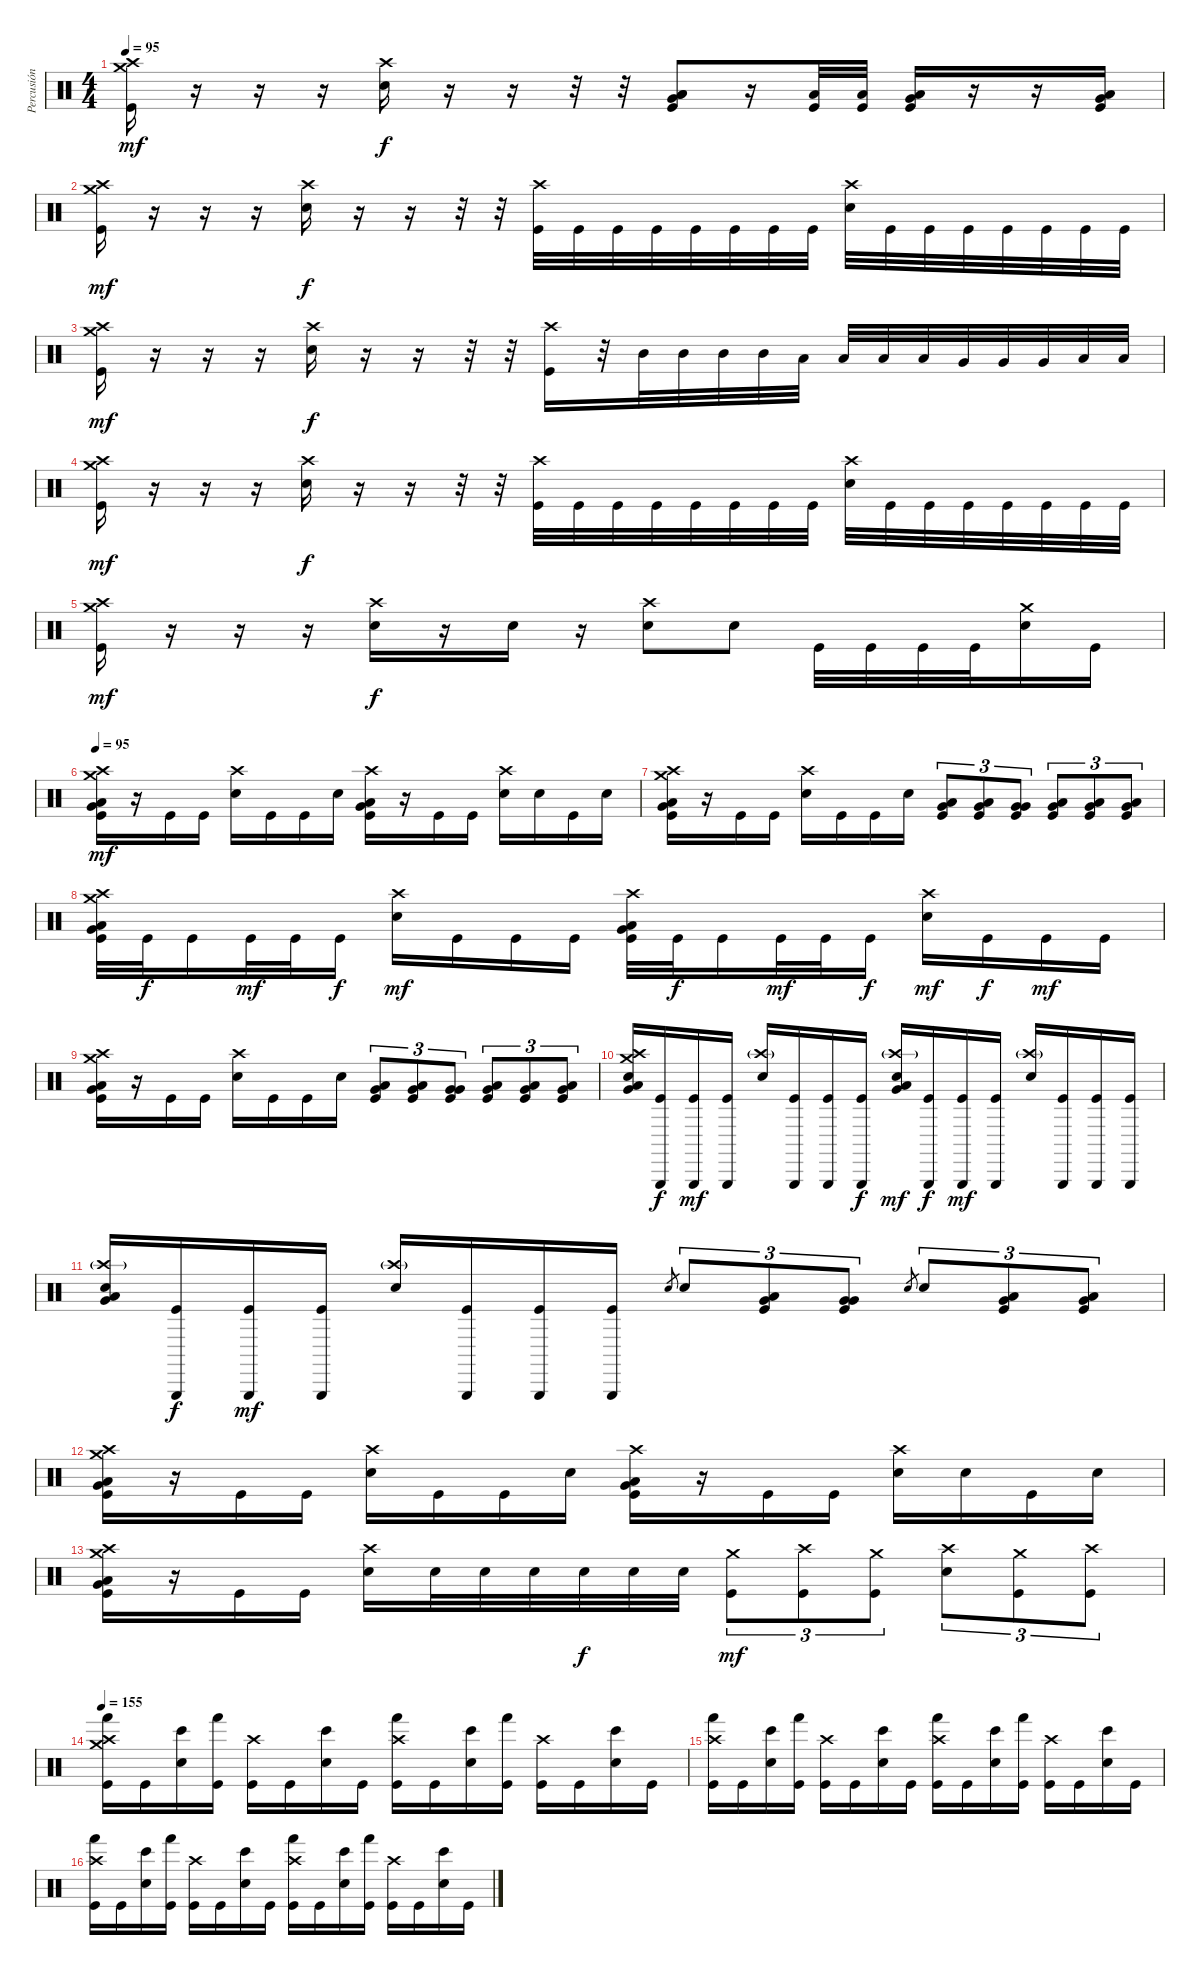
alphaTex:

\track ("Percusión" "Percusión") {instrument percussion}
\staff {score}
\articulation defaults
\ts (4 4)
\tempo 95
\clef neutral
\ks c
("Crash medium (hit)" "Crash high (hit)" "Kick (hit)").16{dy mf} r.16 r.16 r.16 ("Crash high (hit)" "Electric Snare (hit)").16{dy f} r.16 r.16 r.32 r.32 ("Low Floor Tom (hit)" "Very Low Tom (hit)" "Low Tom (hit)" "Kick (hit)").8 r.16 ("Low Tom (hit)" "Kick (hit)").32 ("Low Tom (hit)" "Kick (hit)").32 ("Very Low Tom (hit)" "Low Tom (hit)" "Kick (hit)").16 r.16 r.16 ("Very Low Tom (hit)" "Low Tom (hit)" "Kick (hit)").16 |
("Crash medium (hit)" "Crash high (hit)" "Kick (hit)").16{dy mf} r.16 r.16 r.16 ("Crash high (hit)" "Electric Snare (hit)").16{dy f} r.16 r.16 r.32 r.32 ("Crash high (hit)" "Kick (hit)").32 "Kick (hit)".32 "Kick (hit)".32 "Kick (hit)".32 "Kick (hit)".32 "Kick (hit)".32 "Kick (hit)".32 "Kick (hit)".32 ("Crash high (hit)" "Electric Snare (hit)").32 "Kick (hit)".32 "Kick (hit)".32 "Kick (hit)".32 "Kick (hit)".32 "Kick (hit)".32 "Kick (hit)".32 "Kick (hit)".32 |
("Crash medium (hit)" "Crash high (hit)" "Kick (hit)").16{dy mf} r.16 r.16 r.16 ("Crash high (hit)" "Electric Snare (hit)").16{dy f} r.16 r.16 r.32 r.32 ("Crash high (hit)" "Kick (hit)").16 r.32 "Mid Tom (hit)".32 "Mid Tom (hit)".32 "Mid Tom (hit)".32 "Mid Tom (hit)".32 "Low Tom (hit)".32 "Low Tom (hit)".32 "Low Tom (hit)".32 "Low Tom (hit)".32 "Very Low Tom (hit)".32 "Very Low Tom (hit)".32 "Very Low Tom (hit)".32 "Low Floor Tom (hit)".32 "Low Floor Tom (hit)".32 |
("Crash medium (hit)" "Crash high (hit)" "Kick (hit)").16{dy mf} r.16 r.16 r.16 ("Crash high (hit)" "Electric Snare (hit)").16{dy f} r.16 r.16 r.32 r.32 ("Crash high (hit)" "Kick (hit)").32 "Kick (hit)".32 "Kick (hit)".32 "Kick (hit)".32 "Kick (hit)".32 "Kick (hit)".32 "Kick (hit)".32 "Kick (hit)".32 ("Crash high (hit)" "Electric Snare (hit)").32 "Kick (hit)".32 "Kick (hit)".32 "Kick (hit)".32 "Kick (hit)".32 "Kick (hit)".32 "Kick (hit)".32 "Kick (hit)".32 |
("Crash medium (hit)" "Crash high (hit)" "Kick (hit)").16{dy mf} r.16 r.16 r.16 ("Crash high (hit)" "Electric Snare (hit)").16{dy f} r.16 "Electric Snare (hit)".16 r.16 ("Crash high (hit)" "Electric Snare (hit)").8 "Electric Snare (hit)".8 "Kick (hit)".32 "Kick (hit)".32 "Kick (hit)".32 "Kick (hit)".32 ("Crash medium (hit)" "Electric Snare (hit)").16 "Kick (hit)".16 |
\tempo 95
("Low Floor Tom (hit)" "Very Low Tom (hit)" "Crash medium (hit)" "Crash high (hit)" "Kick (hit)").16{dy mf} r.16 "Kick (hit)".16 "Kick (hit)".16 ("Crash high (hit)" "Electric Snare (hit)").16 "Kick (hit)".16 "Kick (hit)".16 "Electric Snare (hit)".16 ("Low Floor Tom (hit)" "Very Low Tom (hit)" "Crash high (hit)" "Kick (hit)").16 r.16 "Kick (hit)".16 "Kick (hit)".16 ("Crash high (hit)" "Electric Snare (hit)").16 "Electric Snare (hit)".16 "Kick (hit)".16 "Electric Snare (hit)".16 |
("Low Floor Tom (hit)" "Very Low Tom (hit)" "Crash medium (hit)" "Crash high (hit)" "Kick (hit)").16 r.16 "Kick (hit)".16 "Kick (hit)".16 ("Crash high (hit)" "Electric Snare (hit)").16 "Kick (hit)".16 "Kick (hit)".16 "Electric Snare (hit)".16 ("Very Low Tom (hit)" "Low Tom (hit)" "Kick (hit)").8{tu (3 2)} ("Very Low Tom (hit)" "Low Tom (hit)" "Kick (hit)").8{tu (3 2)} ("Very Low Tom (hit)" "Very Low Tom (hit)" "Kick (hit)").8{tu (3 2)} ("Low Floor Tom (hit)" "Very Low Tom (hit)" "Kick (hit)").8{tu (3 2)} ("Low Floor Tom (hit)" "Very Low Tom (hit)" "Kick (hit)").8{tu (3 2)} ("Low Floor Tom (hit)" "Very Low Tom (hit)" "Kick (hit)").8{tu (3 2)} |
("Low Floor Tom (hit)" "Very Low Tom (hit)" "Crash medium (hit)" "Crash high (hit)" "Kick (hit)").32 "Kick (hit)".32{dy f} "Kick (hit)".16 "Kick (hit)".32{dy mf} "Kick (hit)".32 "Kick (hit)".16{dy f} ("Crash high (hit)" "Electric Snare (hit)").16{dy mf} "Kick (hit)".16 "Kick (hit)".16 "Kick (hit)".16 ("Low Floor Tom (hit)" "Very Low Tom (hit)" "Crash high (hit)" "Kick (hit)").32 "Kick (hit)".32{dy f} "Kick (hit)".16 "Kick (hit)".32{dy mf} "Kick (hit)".32 "Kick (hit)".16{dy f} ("Crash high (hit)" "Electric Snare (hit)").16{dy mf} "Kick (hit)".16{dy f} "Kick (hit)".16{dy mf} "Kick (hit)".16 |
("Low Floor Tom (hit)" "Very Low Tom (hit)" "Crash medium (hit)" "Crash high (hit)" "Kick (hit)").16 r.16 "Kick (hit)".16 "Kick (hit)".16 ("Crash high (hit)" "Electric Snare (hit)").16 "Kick (hit)".16 "Kick (hit)".16 "Electric Snare (hit)".16 ("Very Low Tom (hit)" "Low Tom (hit)" "Kick (hit)").8{tu (3 2)} ("Very Low Tom (hit)" "Low Tom (hit)" "Kick (hit)").8{tu (3 2)} ("Very Low Tom (hit)" "Very Low Tom (hit)" "Kick (hit)").8{tu (3 2)} ("Low Floor Tom (hit)" "Very Low Tom (hit)" "Kick (hit)").8{tu (3 2)} ("Low Floor Tom (hit)" "Very Low Tom (hit)" "Kick (hit)").8{tu (3 2)} ("Low Floor Tom (hit)" "Very Low Tom (hit)" "Kick (hit)").8{tu (3 2)} |
("Low Floor Tom (hit)" "Very Low Tom (hit)" "Crash medium (hit)" "Crash high (hit)" "Electric Snare (hit)").16 ("Triangle (hit)" "Kick (hit)").16{dy f} ("Triangle (hit)" "Kick (hit)").16{dy mf} ("Triangle (hit)" "Kick (hit)").16 ("Crash high (hit)"{g} "Electric Snare (hit)").16 ("Triangle (hit)" "Kick (hit)").16 ("Triangle (hit)" "Kick (hit)").16 ("Triangle (hit)" "Kick (hit)").16{dy f} ("Low Floor Tom (hit)" "Very Low Tom (hit)" "Crash high (hit)"{g} "Electric Snare (hit)").16{dy mf} ("Triangle (hit)" "Kick (hit)").16{dy f} ("Triangle (hit)" "Kick (hit)").16{dy mf} ("Triangle (hit)" "Kick (hit)").16 ("Crash high (hit)"{g} "Electric Snare (hit)").16 ("Triangle (hit)" "Kick (hit)").16 ("Triangle (hit)" "Kick (hit)").16 ("Triangle (hit)" "Kick (hit)").16 |
("Low Floor Tom (hit)" "Very Low Tom (hit)" "Crash high (hit)"{g} "Electric Snare (hit)").16 ("Triangle (hit)" "Kick (hit)").16{dy f} ("Triangle (hit)" "Kick (hit)").16{dy mf} ("Triangle (hit)" "Kick (hit)").16 ("Crash high (hit)"{g} "Electric Snare (hit)").16 ("Triangle (hit)" "Kick (hit)").16 ("Triangle (hit)" "Kick (hit)").16 ("Triangle (hit)" "Kick (hit)").16 "Electric Snare (hit)".8{gr} "Electric Snare (hit)".8{tu (3 2)} ("Very Low Tom (hit)" "Low Tom (hit)" "Kick (hit)").8{tu (3 2)} ("Very Low Tom (hit)" "Very Low Tom (hit)" "Kick (hit)").8{tu (3 2)} "Electric Snare (hit)".8{gr} "Electric Snare (hit)".8{tu (3 2)} ("Low Floor Tom (hit)" "Very Low Tom (hit)" "Kick (hit)").8{tu (3 2)} ("Low Floor Tom (hit)" "Very Low Tom (hit)" "Kick (hit)").8{tu (3 2)} |
("Low Floor Tom (hit)" "Very Low Tom (hit)" "Crash medium (hit)" "Crash high (hit)" "Kick (hit)").16 r.16 "Kick (hit)".16 "Kick (hit)".16 ("Crash high (hit)" "Electric Snare (hit)").16 "Kick (hit)".16 "Kick (hit)".16 "Electric Snare (hit)".16 ("Low Floor Tom (hit)" "Very Low Tom (hit)" "Crash high (hit)" "Kick (hit)").16 r.16 "Kick (hit)".16 "Kick (hit)".16 ("Crash high (hit)" "Electric Snare (hit)").16 "Electric Snare (hit)".16 "Kick (hit)".16 "Electric Snare (hit)".16 |
("Low Floor Tom (hit)" "Very Low Tom (hit)" "Crash medium (hit)" "Crash high (hit)" "Kick (hit)").16 r.16 "Kick (hit)".16 "Kick (hit)".16 ("Crash high (hit)" "Electric Snare (hit)").16 "Electric Snare (hit)".32 "Electric Snare (hit)".32 "Electric Snare (hit)".32 "Electric Snare (hit)".32{dy f} "Electric Snare (hit)".32 "Electric Snare (hit)".32 ("Crash medium (hit)" "Kick (hit)").8{tu (3 2) dy mf} ("Crash high (hit)" "Kick (hit)").8{tu (3 2)} ("Crash medium (hit)" "Kick (hit)").8{tu (3 2)} ("Crash high (hit)" "Electric Snare (hit)").8{tu (3 2)} ("Crash medium (hit)" "Kick (hit)").8{tu (3 2)} ("Crash high (hit)" "Kick (hit)").8{tu (3 2)} |
\tempo 155
("Hand (hit)" "Crash medium (hit)" "Crash high (hit)" "Kick (hit)").16 "Kick (hit)".16 ("Bongo High (hit)" "Electric Snare (hit)").16 ("Hand (hit)" "Kick (hit)").16 ("Crash high (hit)" "Kick (hit)").16 "Kick (hit)".16 ("Bongo High (hit)" "Electric Snare (hit)").16 "Kick (hit)".16 ("Hand (hit)" "Crash high (hit)" "Kick (hit)").16 "Kick (hit)".16 ("Bongo High (hit)" "Electric Snare (hit)").16 ("Hand (hit)" "Kick (hit)").16 ("Crash high (hit)" "Kick (hit)").16 "Kick (hit)".16 ("Bongo High (hit)" "Electric Snare (hit)").16 "Kick (hit)".16 |
("Hand (hit)" "Crash high (hit)" "Kick (hit)").16 "Kick (hit)".16 ("Bongo High (hit)" "Electric Snare (hit)").16 ("Hand (hit)" "Kick (hit)").16 ("Crash high (hit)" "Kick (hit)").16 "Kick (hit)".16 ("Bongo High (hit)" "Electric Snare (hit)").16 "Kick (hit)".16 ("Hand (hit)" "Crash high (hit)" "Kick (hit)").16 "Kick (hit)".16 ("Bongo High (hit)" "Electric Snare (hit)").16 ("Hand (hit)" "Kick (hit)").16 ("Crash high (hit)" "Kick (hit)").16 "Kick (hit)".16 ("Bongo High (hit)" "Electric Snare (hit)").16 "Kick (hit)".16 |
("Hand (hit)" "Crash high (hit)" "Kick (hit)").16 "Kick (hit)".16 ("Bongo High (hit)" "Electric Snare (hit)").16 ("Hand (hit)" "Kick (hit)").16 ("Crash high (hit)" "Kick (hit)").16 "Kick (hit)".16 ("Bongo High (hit)" "Electric Snare (hit)").16 "Kick (hit)".16 ("Hand (hit)" "Crash high (hit)" "Kick (hit)").16 "Kick (hit)".16 ("Bongo High (hit)" "Electric Snare (hit)").16 ("Hand (hit)" "Kick (hit)").16 ("Crash high (hit)" "Kick (hit)").16 "Kick (hit)".16 ("Bongo High (hit)" "Electric Snare (hit)").16 "Kick (hit)".16
